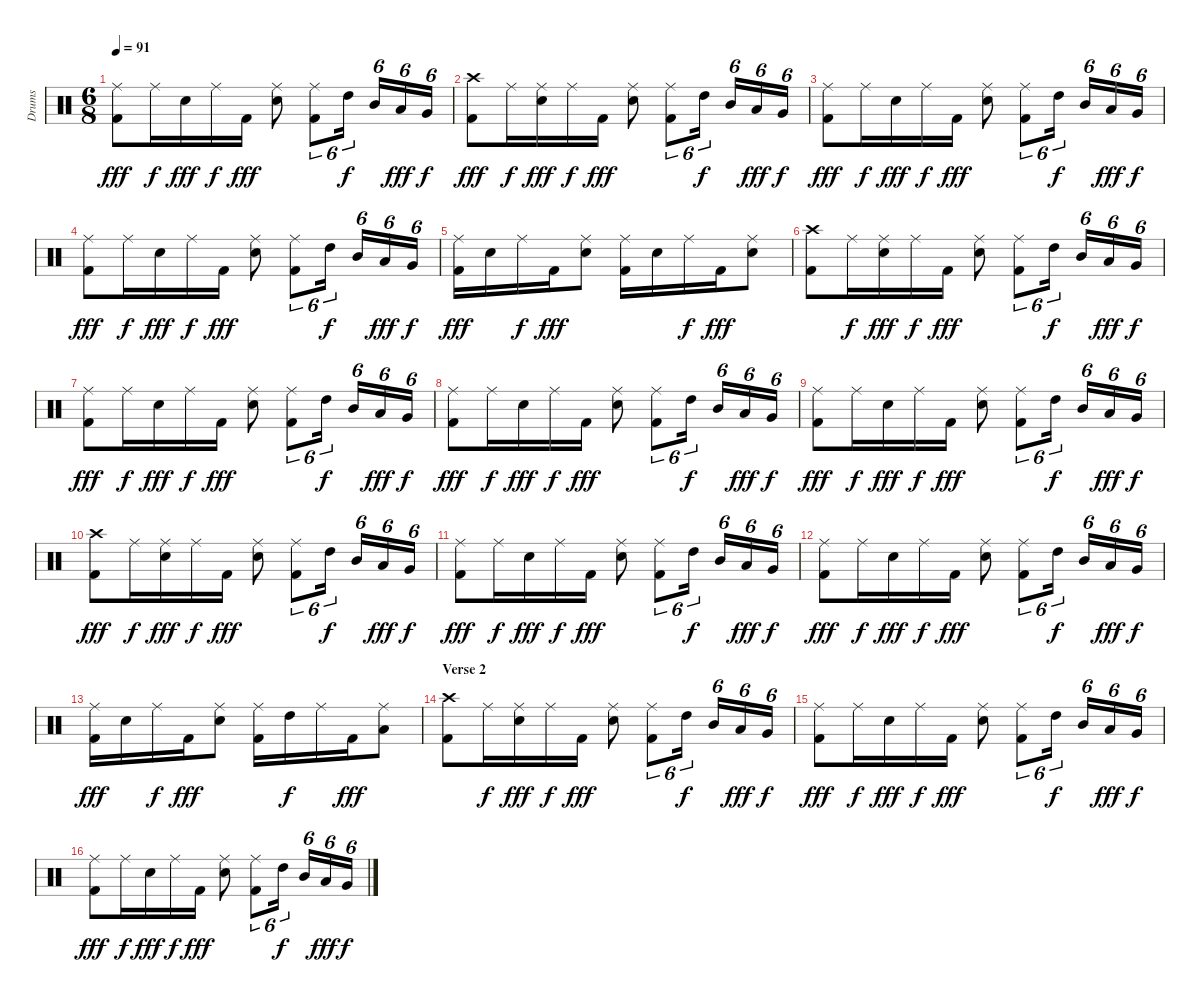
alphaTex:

\track ("Drums" "Drums") {instrument percussion}
\staff {score}
\articulation defaults
\ts (6 8)
\tempo 91
\clef neutral
\ks c
("Ride (middle)" "Kick (hit) 2").8{dy fff} "Ride (middle)".16{dy f} "Electric Snare (hit)".16{dy fff} "Ride (middle)".16{dy f} "Kick (hit) 2".16{dy fff} ("Ride (middle)" "Electric Snare (hit)").8 ("Ride (middle)" "Kick (hit) 2").8{tu (6 4)} "High Tom (hit)".16{tu (6 4) dy f} "Mid Tom (hit)".16{tu (6 4)} "Low Tom (hit)".16{tu (6 4) dy fff} "Very Low Tom (hit)".16{tu (6 4) dy f} |
("Crash high (hit)" "Kick (hit) 2").8{dy fff} "Ride (middle)".16{dy f} ("Ride (middle)" "Electric Snare (hit)").16{dy fff} "Ride (middle)".16{dy f} "Kick (hit) 2".16{dy fff} ("Ride (middle)" "Electric Snare (hit)").8 ("Ride (middle)" "Kick (hit) 2").8{tu (6 4)} "High Tom (hit)".16{tu (6 4) dy f} "Mid Tom (hit)".16{tu (6 4)} "Low Tom (hit)".16{tu (6 4) dy fff} "Very Low Tom (hit)".16{tu (6 4) dy f} |
("Ride (middle)" "Kick (hit) 2").8{dy fff} "Ride (middle)".16{dy f} "Electric Snare (hit)".16{dy fff} "Ride (middle)".16{dy f} "Kick (hit) 2".16{dy fff} ("Ride (middle)" "Electric Snare (hit)").8 ("Ride (middle)" "Kick (hit) 2").8{tu (6 4)} "High Tom (hit)".16{tu (6 4) dy f} "Mid Tom (hit)".16{tu (6 4)} "Low Tom (hit)".16{tu (6 4) dy fff} "Very Low Tom (hit)".16{tu (6 4) dy f} |
("Ride (middle)" "Kick (hit) 2").8{dy fff} "Ride (middle)".16{dy f} "Electric Snare (hit)".16{dy fff} "Ride (middle)".16{dy f} "Kick (hit) 2".16{dy fff} ("Ride (middle)" "Electric Snare (hit)").8 ("Ride (middle)" "Kick (hit) 2").8{tu (6 4)} "High Tom (hit)".16{tu (6 4) dy f} "Mid Tom (hit)".16{tu (6 4)} "Low Tom (hit)".16{tu (6 4) dy fff} "Very Low Tom (hit)".16{tu (6 4) dy f} |
("Ride (middle)" "Kick (hit) 2").16{dy fff} "Electric Snare (hit)".16 "Ride (middle)".16{dy f} "Kick (hit) 2".16{dy fff} ("Ride (middle)" "Electric Snare (hit)").8 ("Ride (middle)" "Kick (hit) 2").16 "Electric Snare (hit)".16 "Ride (middle)".16{dy f} "Kick (hit) 2".16{dy fff} ("Ride (middle)" "Electric Snare (hit)").8 |
("Crash high (hit)" "Kick (hit) 2").8 "Ride (middle)".16{dy f} ("Ride (middle)" "Electric Snare (hit)").16{dy fff} "Ride (middle)".16{dy f} "Kick (hit) 2".16{dy fff} ("Ride (middle)" "Electric Snare (hit)").8 ("Ride (middle)" "Kick (hit) 2").8{tu (6 4)} "High Tom (hit)".16{tu (6 4) dy f} "Mid Tom (hit)".16{tu (6 4)} "Low Tom (hit)".16{tu (6 4) dy fff} "Very Low Tom (hit)".16{tu (6 4) dy f} |
("Ride (middle)" "Kick (hit) 2").8{dy fff} "Ride (middle)".16{dy f} "Electric Snare (hit)".16{dy fff} "Ride (middle)".16{dy f} "Kick (hit) 2".16{dy fff} ("Ride (middle)" "Electric Snare (hit)").8 ("Ride (middle)" "Kick (hit) 2").8{tu (6 4)} "High Tom (hit)".16{tu (6 4) dy f} "Mid Tom (hit)".16{tu (6 4)} "Low Tom (hit)".16{tu (6 4) dy fff} "Very Low Tom (hit)".16{tu (6 4) dy f} |
("Ride (middle)" "Kick (hit) 2").8{dy fff} "Ride (middle)".16{dy f} "Electric Snare (hit)".16{dy fff} "Ride (middle)".16{dy f} "Kick (hit) 2".16{dy fff} ("Ride (middle)" "Electric Snare (hit)").8 ("Ride (middle)" "Kick (hit) 2").8{tu (6 4)} "High Tom (hit)".16{tu (6 4) dy f} "Mid Tom (hit)".16{tu (6 4)} "Low Tom (hit)".16{tu (6 4) dy fff} "Very Low Tom (hit)".16{tu (6 4) dy f} |
("Ride (middle)" "Kick (hit) 2").8{dy fff} "Ride (middle)".16{dy f} "Electric Snare (hit)".16{dy fff} "Ride (middle)".16{dy f} "Kick (hit) 2".16{dy fff} ("Ride (middle)" "Electric Snare (hit)").8 ("Ride (middle)" "Kick (hit) 2").8{tu (6 4)} "High Tom (hit)".16{tu (6 4) dy f} "Mid Tom (hit)".16{tu (6 4)} "Low Tom (hit)".16{tu (6 4) dy fff} "Very Low Tom (hit)".16{tu (6 4) dy f} |
("Crash high (hit)" "Kick (hit) 2").8{dy fff} "Ride (middle)".16{dy f} ("Ride (middle)" "Electric Snare (hit)").16{dy fff} "Ride (middle)".16{dy f} "Kick (hit) 2".16{dy fff} ("Ride (middle)" "Electric Snare (hit)").8 ("Ride (middle)" "Kick (hit) 2").8{tu (6 4)} "High Tom (hit)".16{tu (6 4) dy f} "Mid Tom (hit)".16{tu (6 4)} "Low Tom (hit)".16{tu (6 4) dy fff} "Very Low Tom (hit)".16{tu (6 4) dy f} |
("Ride (middle)" "Kick (hit) 2").8{dy fff} "Ride (middle)".16{dy f} "Electric Snare (hit)".16{dy fff} "Ride (middle)".16{dy f} "Kick (hit) 2".16{dy fff} ("Ride (middle)" "Electric Snare (hit)").8 ("Ride (middle)" "Kick (hit) 2").8{tu (6 4)} "High Tom (hit)".16{tu (6 4) dy f} "Mid Tom (hit)".16{tu (6 4)} "Low Tom (hit)".16{tu (6 4) dy fff} "Very Low Tom (hit)".16{tu (6 4) dy f} |
("Ride (middle)" "Kick (hit) 2").8{dy fff} "Ride (middle)".16{dy f} "Electric Snare (hit)".16{dy fff} "Ride (middle)".16{dy f} "Kick (hit) 2".16{dy fff} ("Ride (middle)" "Electric Snare (hit)").8 ("Ride (middle)" "Kick (hit) 2").8{tu (6 4)} "High Tom (hit)".16{tu (6 4) dy f} "Mid Tom (hit)".16{tu (6 4)} "Low Tom (hit)".16{tu (6 4) dy fff} "Very Low Tom (hit)".16{tu (6 4) dy f} |
("Ride (middle)" "Kick (hit) 2").16{dy fff} "Electric Snare (hit)".16 "Ride (middle)".16{dy f} "Kick (hit) 2".16{dy fff} ("Ride (middle)" "Electric Snare (hit)").8 ("Ride (middle)" "Kick (hit) 2").16 "High Tom (hit)".16{dy f} "Ride (middle)".16 "Kick (hit) 2".16{dy fff} ("Ride (middle)" "Low Tom (hit)").8 |
\section ("" "Verse 2")
("Crash high (hit)" "Kick (hit) 2").8 "Ride (middle)".16{dy f} ("Ride (middle)" "Electric Snare (hit)").16{dy fff} "Ride (middle)".16{dy f} "Kick (hit) 2".16{dy fff} ("Ride (middle)" "Electric Snare (hit)").8 ("Ride (middle)" "Kick (hit) 2").8{tu (6 4)} "High Tom (hit)".16{tu (6 4) dy f} "Mid Tom (hit)".16{tu (6 4)} "Low Tom (hit)".16{tu (6 4) dy fff} "Very Low Tom (hit)".16{tu (6 4) dy f} |
("Ride (middle)" "Kick (hit) 2").8{dy fff} "Ride (middle)".16{dy f} "Electric Snare (hit)".16{dy fff} "Ride (middle)".16{dy f} "Kick (hit) 2".16{dy fff} ("Ride (middle)" "Electric Snare (hit)").8 ("Ride (middle)" "Kick (hit) 2").8{tu (6 4)} "High Tom (hit)".16{tu (6 4) dy f} "Mid Tom (hit)".16{tu (6 4)} "Low Tom (hit)".16{tu (6 4) dy fff} "Very Low Tom (hit)".16{tu (6 4) dy f} |
("Ride (middle)" "Kick (hit) 2").8{dy fff} "Ride (middle)".16{dy f} "Electric Snare (hit)".16{dy fff} "Ride (middle)".16{dy f} "Kick (hit) 2".16{dy fff} ("Ride (middle)" "Electric Snare (hit)").8 ("Ride (middle)" "Kick (hit) 2").8{tu (6 4)} "High Tom (hit)".16{tu (6 4) dy f} "Mid Tom (hit)".16{tu (6 4)} "Low Tom (hit)".16{tu (6 4) dy fff} "Very Low Tom (hit)".16{tu (6 4) dy f}
